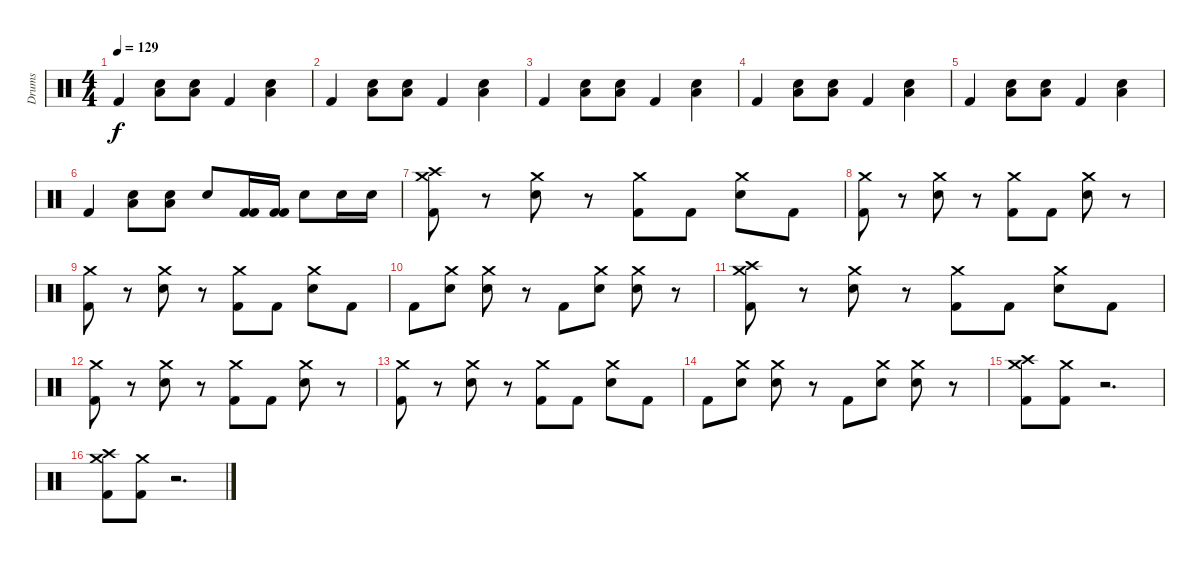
\track ("Drums" "Drums") {instrument percussion}
\staff {score}
\articulation defaults
\ts (4 4)
\tempo 129
\clef neutral
\ks c "Kick (hit) 2".4{dy f}
("Snare (hit) 2" "Low Floor Tom (hit)").8 ("Snare (hit) 2" "Low Floor Tom (hit)").8 "Kick (hit) 2".4 ("Snare (hit) 2" "Low Floor Tom (hit)").4 |
"Kick (hit) 2".4 ("Snare (hit) 2" "Low Floor Tom (hit)").8 ("Snare (hit) 2" "Low Floor Tom (hit)").8 "Kick (hit) 2".4 ("Snare (hit) 2" "Low Floor Tom (hit)").4 |
"Kick (hit) 2".4 ("Snare (hit) 2" "Low Floor Tom (hit)").8 ("Snare (hit) 2" "Low Floor Tom (hit)").8 "Kick (hit) 2".4 ("Snare (hit) 2" "Low Floor Tom (hit)").4 |
"Kick (hit) 2".4 ("Snare (hit) 2" "Low Floor Tom (hit)").8 ("Snare (hit) 2" "Low Floor Tom (hit)").8 "Kick (hit) 2".4 ("Snare (hit) 2" "Low Floor Tom (hit)").4 |
"Kick (hit) 2".4 ("Snare (hit) 2" "Low Floor Tom (hit)").8 ("Snare (hit) 2" "Low Floor Tom (hit)").8 "Kick (hit) 2".4 ("Snare (hit) 2" "Low Floor Tom (hit)").4 |
"Kick (hit) 2".4 ("Snare (hit) 2" "Low Floor Tom (hit)").8 ("Snare (hit) 2" "Low Floor Tom (hit)").8 "Snare (hit) 2".8 ("Kick (hit) 2" "Kick (hit) 2").16 ("Kick (hit) 2" "Kick (hit) 2").16 "Snare (hit) 2".8 "Snare (hit) 2".16 "Snare (hit) 2".16 |
("Crash high (hit)" "Crash medium (hit)" "Kick (hit) 2").8 r.8 ("Crash medium (hit)" "Snare (hit) 2").8 r.8 ("Crash medium (hit)" "Kick (hit) 2").8 "Kick (hit) 2".8 ("Crash medium (hit)" "Snare (hit) 2").8 "Kick (hit) 2".8 |
("Crash medium (hit)" "Kick (hit) 2").8 r.8 ("Crash medium (hit)" "Snare (hit) 2").8 r.8 ("Crash medium (hit)" "Kick (hit) 2").8 "Kick (hit) 2".8 ("Crash medium (hit)" "Snare (hit) 2").8 r.8 |
("Crash medium (hit)" "Kick (hit) 2").8 r.8 ("Crash medium (hit)" "Snare (hit) 2").8 r.8 ("Crash medium (hit)" "Kick (hit) 2").8 "Kick (hit) 2".8 ("Crash medium (hit)" "Snare (hit) 2").8 "Kick (hit) 2".8 |
"Kick (hit) 2".8 ("Crash medium (hit)" "Snare (hit) 2").8 ("Crash medium (hit)" "Snare (hit) 2").8 r.8 "Kick (hit) 2".8 ("Crash medium (hit)" "Snare (hit) 2").8 ("Crash medium (hit)" "Snare (hit) 2").8 r.8 |
("Crash high (hit)" "Crash medium (hit)" "Kick (hit) 2").8 r.8 ("Crash medium (hit)" "Snare (hit) 2").8 r.8 ("Crash medium (hit)" "Kick (hit) 2").8 "Kick (hit) 2".8 ("Crash medium (hit)" "Snare (hit) 2").8 "Kick (hit) 2".8 |
("Crash medium (hit)" "Kick (hit) 2").8 r.8 ("Crash medium (hit)" "Snare (hit) 2").8 r.8 ("Crash medium (hit)" "Kick (hit) 2").8 "Kick (hit) 2".8 ("Crash medium (hit)" "Snare (hit) 2").8 r.8 |
("Crash medium (hit)" "Kick (hit) 2").8 r.8 ("Crash medium (hit)" "Snare (hit) 2").8 r.8 ("Crash medium (hit)" "Kick (hit) 2").8 "Kick (hit) 2".8 ("Crash medium (hit)" "Snare (hit) 2").8 "Kick (hit) 2".8 |
"Kick (hit) 2".8 ("Crash medium (hit)" "Snare (hit) 2").8 ("Crash medium (hit)" "Snare (hit) 2").8 r.8 "Kick (hit) 2".8 ("Crash medium (hit)" "Snare (hit) 2").8 ("Crash medium (hit)" "Snare (hit) 2").8 r.8 |
("Crash high (hit)" "Crash medium (hit)" "Kick (hit) 2").8 ("Crash medium (hit)" "Kick (hit) 2").8 r.2{d} |
("Crash high (hit)" "Crash medium (hit)" "Kick (hit) 2").8 ("Crash medium (hit)" "Kick (hit) 2").8 r.2{d}
